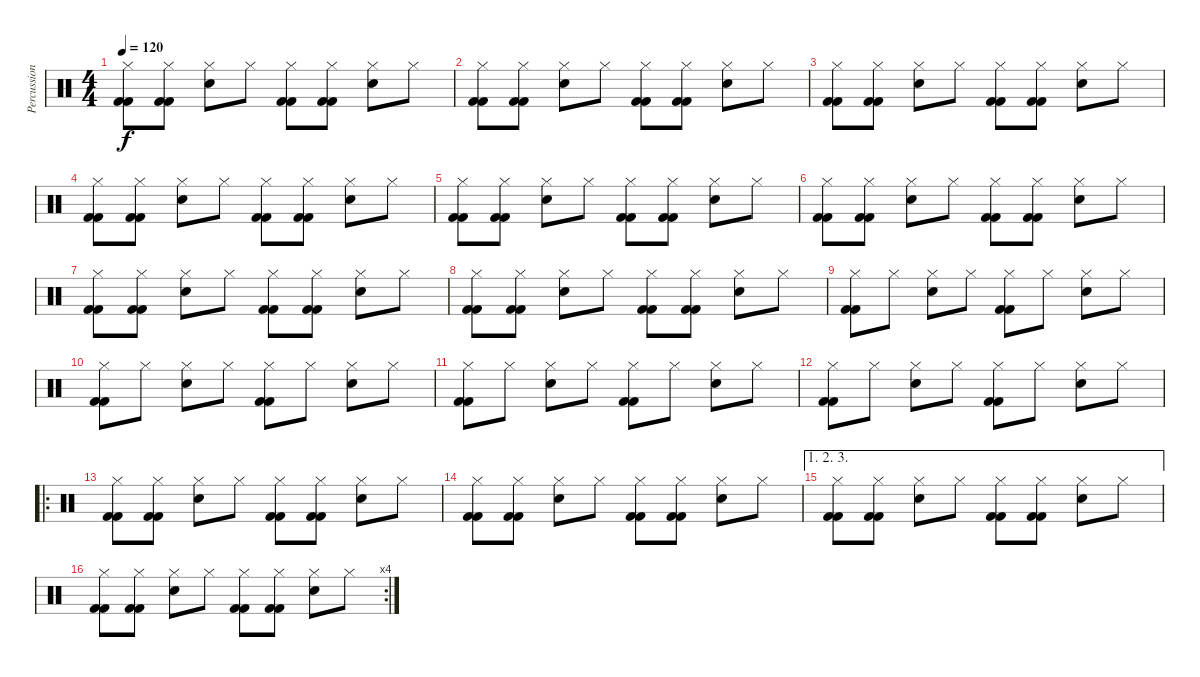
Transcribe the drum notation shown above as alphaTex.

\track ("Percussions" "Percussion") {instrument percussion}
\staff {score}
\articulation defaults
\ts (4 4)
\tempo 120
\clef neutral
\ks c
("Hi-Hat (closed)" "Kick (hit) 2" "Kick (hit) 2").8{dy f} ("Hi-Hat (closed)" "Kick (hit) 2" "Kick (hit) 2").8 ("Hi-Hat (closed)" "Snare (hit) 2").8 "Hi-Hat (closed)".8 ("Hi-Hat (closed)" "Kick (hit) 2" "Kick (hit) 2").8 ("Hi-Hat (closed)" "Kick (hit) 2" "Kick (hit) 2").8 ("Hi-Hat (closed)" "Snare (hit) 2").8 "Hi-Hat (closed)".8 |
("Hi-Hat (closed)" "Kick (hit) 2" "Kick (hit) 2").8 ("Hi-Hat (closed)" "Kick (hit) 2" "Kick (hit) 2").8 ("Hi-Hat (closed)" "Snare (hit) 2").8 "Hi-Hat (closed)".8 ("Hi-Hat (closed)" "Kick (hit) 2" "Kick (hit) 2").8 ("Hi-Hat (closed)" "Kick (hit) 2" "Kick (hit) 2").8 ("Hi-Hat (closed)" "Snare (hit) 2").8 "Hi-Hat (closed)".8 |
("Hi-Hat (closed)" "Kick (hit) 2" "Kick (hit) 2").8 ("Hi-Hat (closed)" "Kick (hit) 2" "Kick (hit) 2").8 ("Hi-Hat (closed)" "Snare (hit) 2").8 "Hi-Hat (closed)".8 ("Hi-Hat (closed)" "Kick (hit) 2" "Kick (hit) 2").8 ("Hi-Hat (closed)" "Kick (hit) 2" "Kick (hit) 2").8 ("Hi-Hat (closed)" "Snare (hit) 2").8 "Hi-Hat (closed)".8 |
("Hi-Hat (closed)" "Kick (hit) 2" "Kick (hit) 2").8 ("Hi-Hat (closed)" "Kick (hit) 2" "Kick (hit) 2").8 ("Hi-Hat (closed)" "Snare (hit) 2").8 "Hi-Hat (closed)".8 ("Hi-Hat (closed)" "Kick (hit) 2" "Kick (hit) 2").8 ("Hi-Hat (closed)" "Kick (hit) 2" "Kick (hit) 2").8 ("Hi-Hat (closed)" "Snare (hit) 2").8 "Hi-Hat (closed)".8 |
("Hi-Hat (closed)" "Kick (hit) 2" "Kick (hit) 2").8 ("Hi-Hat (closed)" "Kick (hit) 2" "Kick (hit) 2").8 ("Hi-Hat (closed)" "Snare (hit) 2").8 "Hi-Hat (closed)".8 ("Hi-Hat (closed)" "Kick (hit) 2" "Kick (hit) 2").8 ("Hi-Hat (closed)" "Kick (hit) 2" "Kick (hit) 2").8 ("Hi-Hat (closed)" "Snare (hit) 2").8 "Hi-Hat (closed)".8 |
("Hi-Hat (closed)" "Kick (hit) 2" "Kick (hit) 2").8 ("Hi-Hat (closed)" "Kick (hit) 2" "Kick (hit) 2").8 ("Hi-Hat (closed)" "Snare (hit) 2").8 "Hi-Hat (closed)".8 ("Hi-Hat (closed)" "Kick (hit) 2" "Kick (hit) 2").8 ("Hi-Hat (closed)" "Kick (hit) 2" "Kick (hit) 2").8 ("Hi-Hat (closed)" "Snare (hit) 2").8 "Hi-Hat (closed)".8 |
("Hi-Hat (closed)" "Kick (hit) 2" "Kick (hit) 2").8 ("Hi-Hat (closed)" "Kick (hit) 2" "Kick (hit) 2").8 ("Hi-Hat (closed)" "Snare (hit) 2").8 "Hi-Hat (closed)".8 ("Hi-Hat (closed)" "Kick (hit) 2" "Kick (hit) 2").8 ("Hi-Hat (closed)" "Kick (hit) 2" "Kick (hit) 2").8 ("Hi-Hat (closed)" "Snare (hit) 2").8 "Hi-Hat (closed)".8 |
("Hi-Hat (closed)" "Kick (hit) 2" "Kick (hit) 2").8 ("Hi-Hat (closed)" "Kick (hit) 2" "Kick (hit) 2").8 ("Hi-Hat (closed)" "Snare (hit) 2").8 "Hi-Hat (closed)".8 ("Hi-Hat (closed)" "Kick (hit) 2" "Kick (hit) 2").8 ("Hi-Hat (closed)" "Kick (hit) 2" "Kick (hit) 2").8 ("Hi-Hat (closed)" "Snare (hit) 2").8 "Hi-Hat (closed)".8 |
("Hi-Hat (closed)" "Kick (hit) 2" "Kick (hit) 2").8 "Hi-Hat (closed)".8 ("Hi-Hat (closed)" "Snare (hit) 2").8 "Hi-Hat (closed)".8 ("Hi-Hat (closed)" "Kick (hit) 2" "Kick (hit) 2").8 "Hi-Hat (closed)".8 ("Hi-Hat (closed)" "Snare (hit) 2").8 "Hi-Hat (closed)".8 |
("Hi-Hat (closed)" "Kick (hit) 2" "Kick (hit) 2").8 "Hi-Hat (closed)".8 ("Hi-Hat (closed)" "Snare (hit) 2").8 "Hi-Hat (closed)".8 ("Hi-Hat (closed)" "Kick (hit) 2" "Kick (hit) 2").8 "Hi-Hat (closed)".8 ("Hi-Hat (closed)" "Snare (hit) 2").8 "Hi-Hat (closed)".8 |
("Hi-Hat (closed)" "Kick (hit) 2" "Kick (hit) 2").8 "Hi-Hat (closed)".8 ("Hi-Hat (closed)" "Snare (hit) 2").8 "Hi-Hat (closed)".8 ("Hi-Hat (closed)" "Kick (hit) 2" "Kick (hit) 2").8 "Hi-Hat (closed)".8 ("Hi-Hat (closed)" "Snare (hit) 2").8 "Hi-Hat (closed)".8 |
("Hi-Hat (closed)" "Kick (hit) 2" "Kick (hit) 2").8 "Hi-Hat (closed)".8 ("Hi-Hat (closed)" "Snare (hit) 2").8 "Hi-Hat (closed)".8 ("Hi-Hat (closed)" "Kick (hit) 2" "Kick (hit) 2").8 "Hi-Hat (closed)".8 ("Hi-Hat (closed)" "Snare (hit) 2").8 "Hi-Hat (closed)".8 |
\ro
("Hi-Hat (closed)" "Kick (hit) 2" "Kick (hit) 2").8 ("Hi-Hat (closed)" "Kick (hit) 2" "Kick (hit) 2").8 ("Hi-Hat (closed)" "Snare (hit) 2").8 "Hi-Hat (closed)".8 ("Hi-Hat (closed)" "Kick (hit) 2" "Kick (hit) 2").8 ("Hi-Hat (closed)" "Kick (hit) 2" "Kick (hit) 2").8 ("Hi-Hat (closed)" "Snare (hit) 2").8 "Hi-Hat (closed)".8 |
("Hi-Hat (closed)" "Kick (hit) 2" "Kick (hit) 2").8 ("Hi-Hat (closed)" "Kick (hit) 2" "Kick (hit) 2").8 ("Hi-Hat (closed)" "Snare (hit) 2").8 "Hi-Hat (closed)".8 ("Hi-Hat (closed)" "Kick (hit) 2" "Kick (hit) 2").8 ("Hi-Hat (closed)" "Kick (hit) 2" "Kick (hit) 2").8 ("Hi-Hat (closed)" "Snare (hit) 2").8 "Hi-Hat (closed)".8 |
\ae (1 2 3)
("Hi-Hat (closed)" "Kick (hit) 2" "Kick (hit) 2").8 ("Hi-Hat (closed)" "Kick (hit) 2" "Kick (hit) 2").8 ("Hi-Hat (closed)" "Snare (hit) 2").8 "Hi-Hat (closed)".8 ("Hi-Hat (closed)" "Kick (hit) 2" "Kick (hit) 2").8 ("Hi-Hat (closed)" "Kick (hit) 2" "Kick (hit) 2").8 ("Hi-Hat (closed)" "Snare (hit) 2").8 "Hi-Hat (closed)".8 |
\rc 4
("Hi-Hat (closed)" "Kick (hit) 2" "Kick (hit) 2").8 ("Hi-Hat (closed)" "Kick (hit) 2" "Kick (hit) 2").8 ("Hi-Hat (closed)" "Snare (hit) 2").8 "Hi-Hat (closed)".8 ("Hi-Hat (closed)" "Kick (hit) 2" "Kick (hit) 2").8 ("Hi-Hat (closed)" "Kick (hit) 2" "Kick (hit) 2").8 ("Hi-Hat (closed)" "Snare (hit) 2").8 "Hi-Hat (closed)".8
